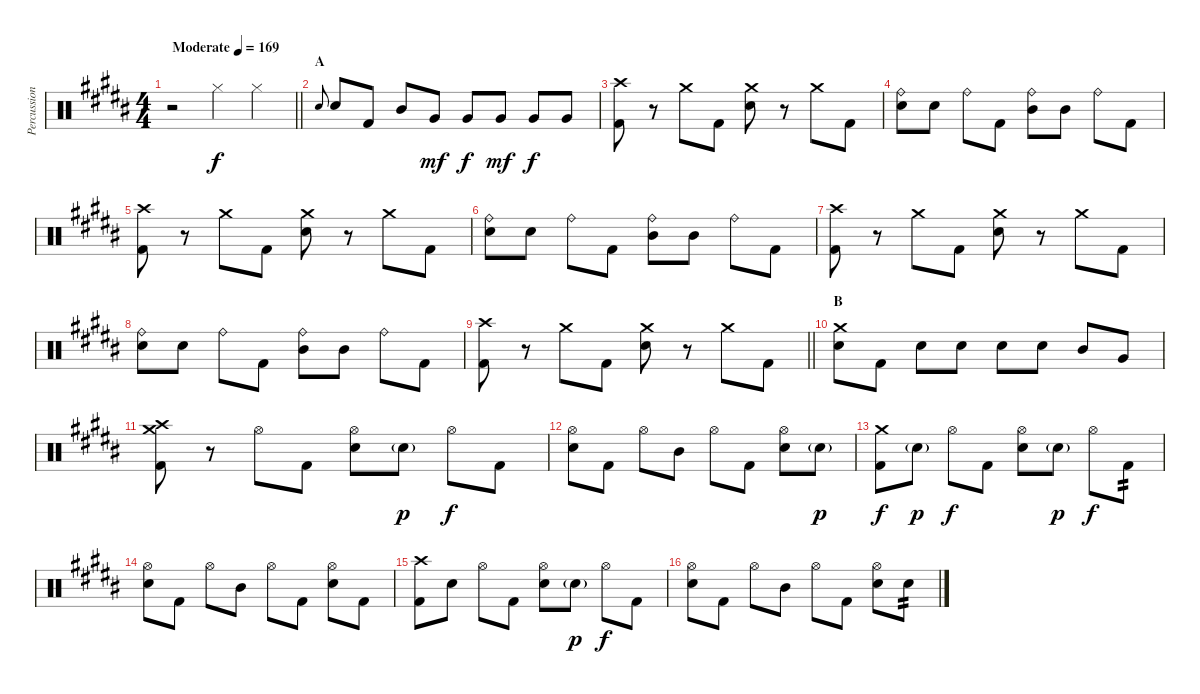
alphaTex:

\track ("Percussion" "Percussion") {instrument percussion}
\staff {score}
\articulation defaults
\ts (4 4)
\tempo (169 "Moderate")
\clef neutral
\barLineRight lightlight
\ks g#minor
r.2{dy f} "Hi-Hat (closed)".4 "Hi-Hat (closed)".4 |
\section ("" "A")
"Snare (hit) 2".8{gr onbeat} "Snare (hit) 2".8 "Kick (hit) 2".8 "Mid Tom (hit)".8 "Very Low Tom (hit)".8{dy mf} "Very Low Tom (hit)".8{dy f} "Very Low Tom (hit)".8{dy mf} "Very Low Tom (hit)".8{dy f} "Very Low Tom (hit)".8 |
("Crash high (hit)" "Kick (hit) 2").8 r.8 "Crash medium (hit)".8 "Kick (hit) 2".8 ("Crash medium (hit)" "Snare (hit) 2").8 r.8 "Crash medium (hit)".8 "Kick (hit) 2".8 |
("Ride (bell)" "Snare (hit) 2").8 "Snare (hit) 2".8 "Ride (bell)".8 "Kick (hit) 2".8 ("Ride (bell)" "Mid Tom (hit)").8 "Mid Tom (hit)".8 "Ride (bell)".8 "Kick (hit) 2".8 |
("Crash high (hit)" "Kick (hit) 2").8 r.8 "Crash medium (hit)".8 "Kick (hit) 2".8 ("Crash medium (hit)" "Snare (hit) 2").8 r.8 "Crash medium (hit)".8 "Kick (hit) 2".8 |
("Ride (bell)" "Snare (hit) 2").8 "Snare (hit) 2".8 "Ride (bell)".8 "Kick (hit) 2".8 ("Ride (bell)" "Mid Tom (hit)").8 "Mid Tom (hit)".8 "Ride (bell)".8 "Kick (hit) 2".8 |
("Crash high (hit)" "Kick (hit) 2").8 r.8 "Crash medium (hit)".8 "Kick (hit) 2".8 ("Crash medium (hit)" "Snare (hit) 2").8 r.8 "Crash medium (hit)".8 "Kick (hit) 2".8 |
("Ride (bell)" "Snare (hit) 2").8 "Snare (hit) 2".8 "Ride (bell)".8 "Kick (hit) 2".8 ("Ride (bell)" "Mid Tom (hit)").8 "Mid Tom (hit)".8 "Ride (bell)".8 "Kick (hit) 2".8 |
\barLineRight lightlight
("Crash high (hit)" "Kick (hit) 2").8 r.8 "Crash medium (hit)".8 "Kick (hit) 2".8 ("Crash medium (hit)" "Snare (hit) 2").8 r.8 "Crash medium (hit)".8 "Kick (hit) 2".8 |
\section ("" "B")
("Crash medium (hit)" "Snare (hit) 2").8 "Kick (hit) 2".8 "Snare (hit) 2".8 "Snare (hit) 2".8 "Snare (hit) 2".8 "Snare (hit) 2".8 "Mid Tom (hit)".8 "Very Low Tom (hit)".8 |
("Crash high (hit)" "Crash medium (hit)" "Kick (hit) 2").8 r.8 "Hi-Hat (open)".8 "Kick (hit) 2".8 ("Hi-Hat (open)" "Snare (hit) 2").8 "Snare (hit) 2"{g}.8{dy p} "Hi-Hat (open)".8{dy f} "Kick (hit) 2".8 |
("Hi-Hat (open)" "Snare (hit) 2").8 "Kick (hit) 2".8 "Hi-Hat (open)".8 "Mid Tom (hit)".8 "Hi-Hat (open)".8 "Kick (hit) 2".8 ("Hi-Hat (open)" "Snare (hit) 2").8 "Snare (hit) 2"{g}.8{dy p} |
("Crash medium (hit)" "Kick (hit) 2").8{dy f} "Snare (hit) 2"{g}.8{dy p} "Hi-Hat (open)".8{dy f} "Kick (hit) 2".8 ("Hi-Hat (open)" "Snare (hit) 2").8 "Snare (hit) 2"{g}.8{dy p} "Hi-Hat (open)".8{dy f} "Kick (hit) 2".8{tp 2} |
("Hi-Hat (open)" "Snare (hit) 2").8 "Kick (hit) 2".8 "Hi-Hat (open)".8 "Mid Tom (hit)".8 "Hi-Hat (open)".8 "Kick (hit) 2".8 ("Hi-Hat (open)" "Snare (hit) 2").8 "Kick (hit) 2".8 |
("Crash high (hit)" "Kick (hit) 2").8 "Snare (hit) 2".8 "Hi-Hat (open)".8 "Kick (hit) 2".8 ("Hi-Hat (open)" "Snare (hit) 2").8 "Snare (hit) 2"{g}.8{dy p} "Hi-Hat (open)".8{dy f} "Kick (hit) 2".8 |
("Hi-Hat (open)" "Snare (hit) 2").8 "Kick (hit) 2".8 "Hi-Hat (open)".8 "Mid Tom (hit)".8 "Hi-Hat (open)".8 "Kick (hit) 2".8 ("Hi-Hat (open)" "Snare (hit) 2").8 "Snare (hit) 2".8{tp 2}
